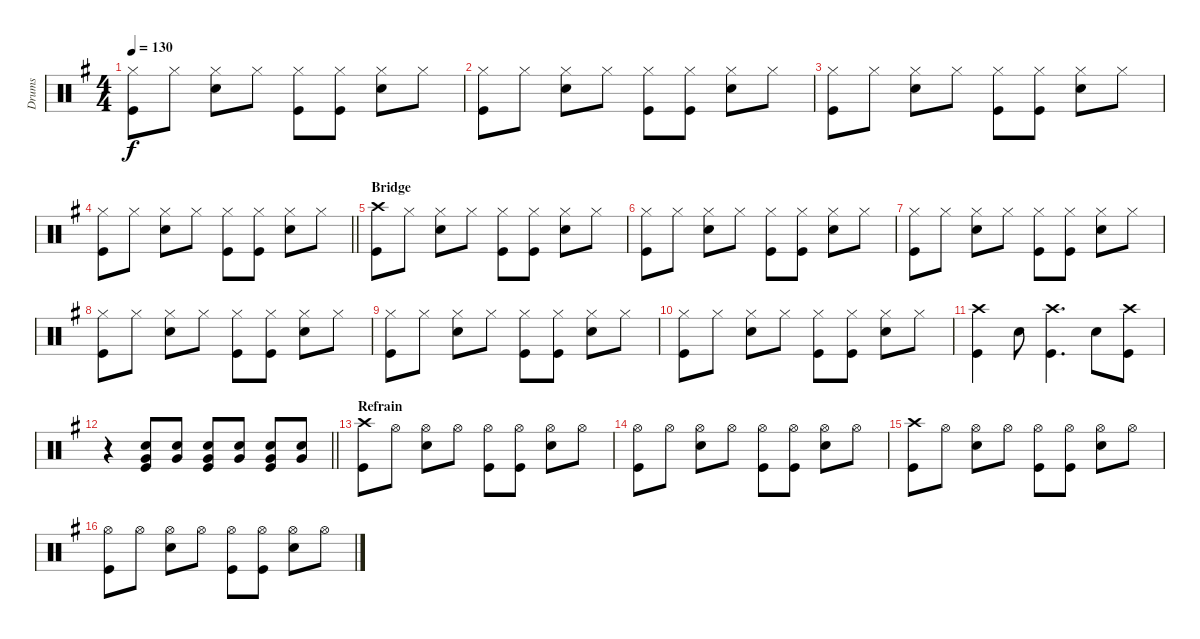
\track ("Drums" "Drums") {instrument percussion}
\staff {score}
\articulation defaults
\ts (4 4)
\tempo 130
\clef neutral
\ks g
("Hi-Hat (closed)" "Kick (hit)").8{dy f} "Hi-Hat (closed)".8 ("Hi-Hat (closed)" "Snare (hit) 2").8 "Hi-Hat (closed)".8 ("Hi-Hat (closed)" "Kick (hit)").8 ("Hi-Hat (closed)" "Kick (hit)").8 ("Hi-Hat (closed)" "Snare (hit) 2").8 "Hi-Hat (closed)".8 |
("Hi-Hat (closed)" "Kick (hit)").8 "Hi-Hat (closed)".8 ("Hi-Hat (closed)" "Snare (hit) 2").8 "Hi-Hat (closed)".8 ("Hi-Hat (closed)" "Kick (hit)").8 ("Hi-Hat (closed)" "Kick (hit)").8 ("Hi-Hat (closed)" "Snare (hit) 2").8 "Hi-Hat (closed)".8 |
("Hi-Hat (closed)" "Kick (hit)").8 "Hi-Hat (closed)".8 ("Hi-Hat (closed)" "Snare (hit) 2").8 "Hi-Hat (closed)".8 ("Hi-Hat (closed)" "Kick (hit)").8 ("Hi-Hat (closed)" "Kick (hit)").8 ("Hi-Hat (closed)" "Snare (hit) 2").8 "Hi-Hat (closed)".8 |
\barLineRight lightlight
("Hi-Hat (closed)" "Kick (hit)").8 "Hi-Hat (closed)".8 ("Hi-Hat (closed)" "Snare (hit) 2").8 "Hi-Hat (closed)".8 ("Hi-Hat (closed)" "Kick (hit)").8 ("Hi-Hat (closed)" "Kick (hit)").8 ("Hi-Hat (closed)" "Snare (hit) 2").8 "Hi-Hat (closed)".8 |
\section ("" "Bridge")
("Crash high (hit)" "Kick (hit)").8 "Hi-Hat (closed)".8 ("Hi-Hat (closed)" "Snare (hit) 2").8 "Hi-Hat (closed)".8 ("Hi-Hat (closed)" "Kick (hit)").8 ("Hi-Hat (closed)" "Kick (hit)").8 ("Hi-Hat (closed)" "Snare (hit) 2").8 "Hi-Hat (closed)".8 |
("Hi-Hat (closed)" "Kick (hit)").8 "Hi-Hat (closed)".8 ("Hi-Hat (closed)" "Snare (hit) 2").8 "Hi-Hat (closed)".8 ("Hi-Hat (closed)" "Kick (hit)").8 ("Hi-Hat (closed)" "Kick (hit)").8 ("Hi-Hat (closed)" "Snare (hit) 2").8 "Hi-Hat (closed)".8 |
("Hi-Hat (closed)" "Kick (hit)").8 "Hi-Hat (closed)".8 ("Hi-Hat (closed)" "Snare (hit) 2").8 "Hi-Hat (closed)".8 ("Hi-Hat (closed)" "Kick (hit)").8 ("Hi-Hat (closed)" "Kick (hit)").8 ("Hi-Hat (closed)" "Snare (hit) 2").8 "Hi-Hat (closed)".8 |
("Hi-Hat (closed)" "Kick (hit)").8 "Hi-Hat (closed)".8 ("Hi-Hat (closed)" "Snare (hit) 2").8 "Hi-Hat (closed)".8 ("Hi-Hat (closed)" "Kick (hit)").8 ("Hi-Hat (closed)" "Kick (hit)").8 ("Hi-Hat (closed)" "Snare (hit) 2").8 "Hi-Hat (closed)".8 |
("Hi-Hat (closed)" "Kick (hit)").8 "Hi-Hat (closed)".8 ("Hi-Hat (closed)" "Snare (hit) 2").8 "Hi-Hat (closed)".8 ("Hi-Hat (closed)" "Kick (hit)").8 ("Hi-Hat (closed)" "Kick (hit)").8 ("Hi-Hat (closed)" "Snare (hit) 2").8 "Hi-Hat (closed)".8 |
("Hi-Hat (closed)" "Kick (hit)").8 "Hi-Hat (closed)".8 ("Hi-Hat (closed)" "Snare (hit) 2").8 "Hi-Hat (closed)".8 ("Hi-Hat (closed)" "Kick (hit)").8 ("Hi-Hat (closed)" "Kick (hit)").8 ("Hi-Hat (closed)" "Snare (hit) 2").8 "Hi-Hat (closed)".8 |
("Crash high (hit)" "Kick (hit)").4 "Snare (hit) 2".8 ("Crash high (hit)" "Kick (hit)").4{d} "Snare (hit) 2".8 ("Crash high (hit)" "Kick (hit)").8 |
\barLineRight lightlight
r.4 ("Snare (hit) 2" "Kick (hit)" "Very Low Tom (hit)").8 ("Snare (hit) 2" "Very Low Tom (hit)").8 ("Snare (hit) 2" "Kick (hit)" "Very Low Tom (hit)").8 ("Snare (hit) 2" "Very Low Tom (hit)").8 ("Snare (hit) 2" "Kick (hit)" "Very Low Tom (hit)").8 ("Snare (hit) 2" "Very Low Tom (hit)").8 |
\section ("" "Refrain")
("Crash high (hit)" "Kick (hit)").8 "Hi-Hat (open)".8 ("Hi-Hat (open)" "Snare (hit) 2").8 "Hi-Hat (open)".8 ("Hi-Hat (open)" "Kick (hit)").8 ("Hi-Hat (open)" "Kick (hit)").8 ("Hi-Hat (open)" "Snare (hit) 2").8 "Hi-Hat (open)".8 |
("Hi-Hat (open)" "Kick (hit)").8 "Hi-Hat (open)".8 ("Hi-Hat (open)" "Snare (hit) 2").8 "Hi-Hat (open)".8 ("Hi-Hat (open)" "Kick (hit)").8 ("Hi-Hat (open)" "Kick (hit)").8 ("Hi-Hat (open)" "Snare (hit) 2").8 "Hi-Hat (open)".8 |
("Crash high (hit)" "Kick (hit)").8 "Hi-Hat (open)".8 ("Hi-Hat (open)" "Snare (hit) 2").8 "Hi-Hat (open)".8 ("Hi-Hat (open)" "Kick (hit)").8 ("Hi-Hat (open)" "Kick (hit)").8 ("Hi-Hat (open)" "Snare (hit) 2").8 "Hi-Hat (open)".8 |
("Hi-Hat (open)" "Kick (hit)").8 "Hi-Hat (open)".8 ("Hi-Hat (open)" "Snare (hit) 2").8 "Hi-Hat (open)".8 ("Hi-Hat (open)" "Kick (hit)").8 ("Hi-Hat (open)" "Kick (hit)").8 ("Hi-Hat (open)" "Snare (hit) 2").8 "Hi-Hat (open)".8
